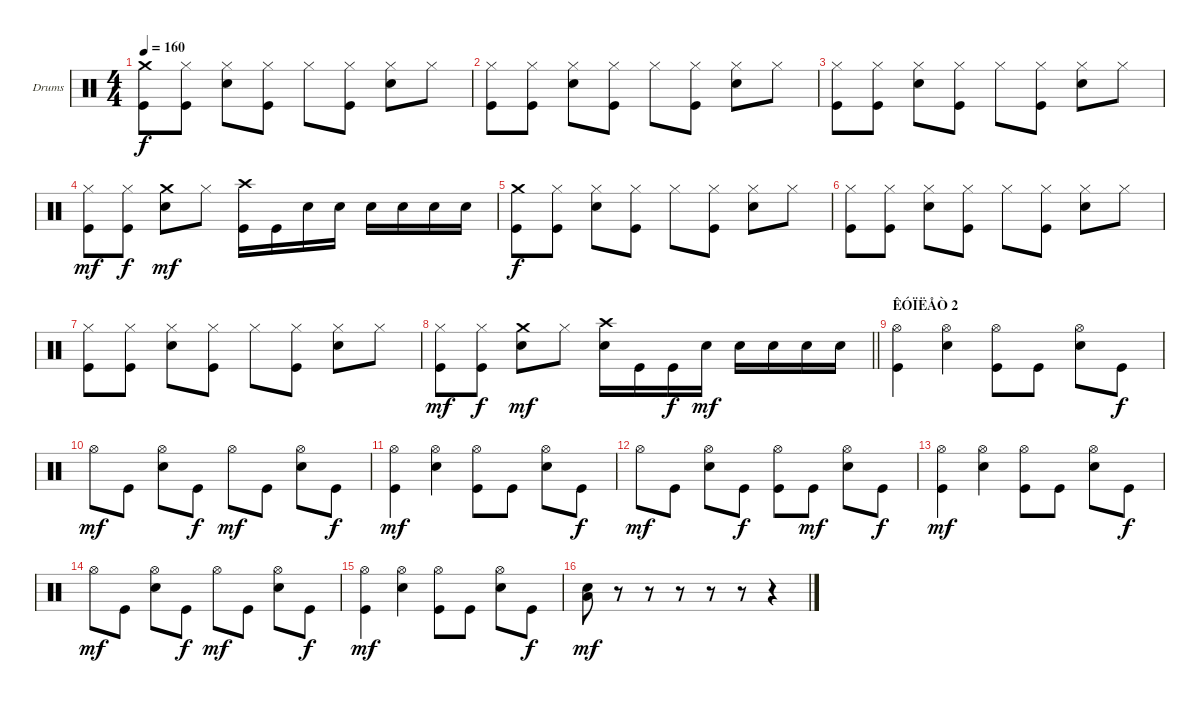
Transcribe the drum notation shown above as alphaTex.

\bracketExtendMode groupsimilarinstruments
\firstSystemTrackNameOrientation horizontal
\otherSystemsTrackNameOrientation horizontal
\track ("Drumkit" "Drums") {instrument percussion}
\staff {score}
\articulation defaults
\ts (4 4)
\tempo 160
\clef neutral
\ks c
("Crash medium (hit)" "Kick (hit)").8{dy f} ("Hi-Hat (closed)" "Kick (hit)").8 ("Hi-Hat (closed)" "Snare (hit) 2").8 ("Hi-Hat (closed)" "Kick (hit)").8 "Hi-Hat (closed)".8 ("Hi-Hat (closed)" "Kick (hit)").8 ("Hi-Hat (closed)" "Snare (hit) 2").8 "Hi-Hat (closed)".8 |
("Hi-Hat (closed)" "Kick (hit)").8 ("Hi-Hat (closed)" "Kick (hit)").8 ("Hi-Hat (closed)" "Snare (hit) 2").8 ("Hi-Hat (closed)" "Kick (hit)").8 "Hi-Hat (closed)".8 ("Hi-Hat (closed)" "Kick (hit)").8 ("Hi-Hat (closed)" "Snare (hit) 2").8 "Hi-Hat (closed)".8 |
("Hi-Hat (closed)" "Kick (hit)").8 ("Hi-Hat (closed)" "Kick (hit)").8 ("Hi-Hat (closed)" "Snare (hit) 2").8 ("Hi-Hat (closed)" "Kick (hit)").8 "Hi-Hat (closed)".8 ("Hi-Hat (closed)" "Kick (hit)").8 ("Hi-Hat (closed)" "Snare (hit) 2").8 "Hi-Hat (closed)".8 |
("Hi-Hat (closed)" "Kick (hit)").8{dy mf} ("Kick (hit)" "Hi-Hat (closed)").8{dy f} ("Crash medium (hit)" "Snare (hit) 2").8{dy mf} "Hi-Hat (closed)".8 ("Crash high (hit)" "Kick (hit)").16 "Kick (hit)".16 "Snare (hit) 2".16 "Snare (hit) 2".16 "Snare (hit) 2".16 "Snare (hit) 2".16 "Snare (hit) 2".16 "Snare (hit) 2".16 |
("Crash medium (hit)" "Kick (hit)").8{dy f} ("Hi-Hat (closed)" "Kick (hit)").8 ("Hi-Hat (closed)" "Snare (hit) 2").8 ("Hi-Hat (closed)" "Kick (hit)").8 "Hi-Hat (closed)".8 ("Hi-Hat (closed)" "Kick (hit)").8 ("Hi-Hat (closed)" "Snare (hit) 2").8 "Hi-Hat (closed)".8 |
("Hi-Hat (closed)" "Kick (hit)").8 ("Hi-Hat (closed)" "Kick (hit)").8 ("Hi-Hat (closed)" "Snare (hit) 2").8 ("Hi-Hat (closed)" "Kick (hit)").8 "Hi-Hat (closed)".8 ("Hi-Hat (closed)" "Kick (hit)").8 ("Hi-Hat (closed)" "Snare (hit) 2").8 "Hi-Hat (closed)".8 |
("Hi-Hat (closed)" "Kick (hit)").8 ("Hi-Hat (closed)" "Kick (hit)").8 ("Hi-Hat (closed)" "Snare (hit) 2").8 ("Hi-Hat (closed)" "Kick (hit)").8 "Hi-Hat (closed)".8 ("Hi-Hat (closed)" "Kick (hit)").8 ("Hi-Hat (closed)" "Snare (hit) 2").8 "Hi-Hat (closed)".8 |
\barLineRight lightlight
("Hi-Hat (closed)" "Kick (hit)").8{dy mf} ("Kick (hit)" "Hi-Hat (closed)").8{dy f} ("Crash medium (hit)" "Snare (hit) 2").8{dy mf} "Hi-Hat (closed)".8 ("Crash high (hit)" "Snare (hit) 2").16 "Kick (hit)".16 "Kick (hit)".16{dy f} "Snare (hit) 2".16{dy mf} "Snare (hit) 2".16 "Snare (hit) 2".16 "Snare (hit) 2".16 "Snare (hit) 2".16 |
\section ("" "ÊÓÏËÅÒ 2")
("Kick (hit)" "Hi-Hat (open)").4 ("Snare (hit) 2" "Hi-Hat (open)").4 ("Kick (hit)" "Hi-Hat (open)").8 "Kick (hit)".8 ("Snare (hit) 2" "Hi-Hat (open)").8 "Kick (hit)".8{dy f} |
"Hi-Hat (open)".8{dy mf} "Kick (hit)".8 ("Snare (hit) 2" "Hi-Hat (open)").8 "Kick (hit)".8{dy f} "Hi-Hat (open)".8{dy mf} "Kick (hit)".8 ("Snare (hit) 2" "Hi-Hat (open)").8 "Kick (hit)".8{dy f} |
("Kick (hit)" "Hi-Hat (open)").4{dy mf} ("Snare (hit) 2" "Hi-Hat (open)").4 ("Kick (hit)" "Hi-Hat (open)").8 "Kick (hit)".8 ("Snare (hit) 2" "Hi-Hat (open)").8 "Kick (hit)".8{dy f} |
"Hi-Hat (open)".8{dy mf} "Kick (hit)".8 ("Snare (hit) 2" "Hi-Hat (open)").8 "Kick (hit)".8{dy f} ("Kick (hit)" "Hi-Hat (open)").8 "Kick (hit)".8{dy mf} ("Snare (hit) 2" "Hi-Hat (open)").8 "Kick (hit)".8{dy f} |
("Kick (hit)" "Hi-Hat (open)").4{dy mf} ("Snare (hit) 2" "Hi-Hat (open)").4 ("Kick (hit)" "Hi-Hat (open)").8 "Kick (hit)".8 ("Snare (hit) 2" "Hi-Hat (open)").8 "Kick (hit)".8{dy f} |
"Hi-Hat (open)".8{dy mf} "Kick (hit)".8 ("Snare (hit) 2" "Hi-Hat (open)").8 "Kick (hit)".8{dy f} "Hi-Hat (open)".8{dy mf} "Kick (hit)".8 ("Snare (hit) 2" "Hi-Hat (open)").8 "Kick (hit)".8{dy f} |
("Kick (hit)" "Hi-Hat (open)").4{dy mf} ("Snare (hit) 2" "Hi-Hat (open)").4 ("Kick (hit)" "Hi-Hat (open)").8 "Kick (hit)".8 ("Snare (hit) 2" "Hi-Hat (open)").8 "Kick (hit)".8{dy f} |
("Snare (hit) 2" "Low Tom (hit)").8{dy mf} r.8 r.8 r.8 r.8 r.8 r.4
